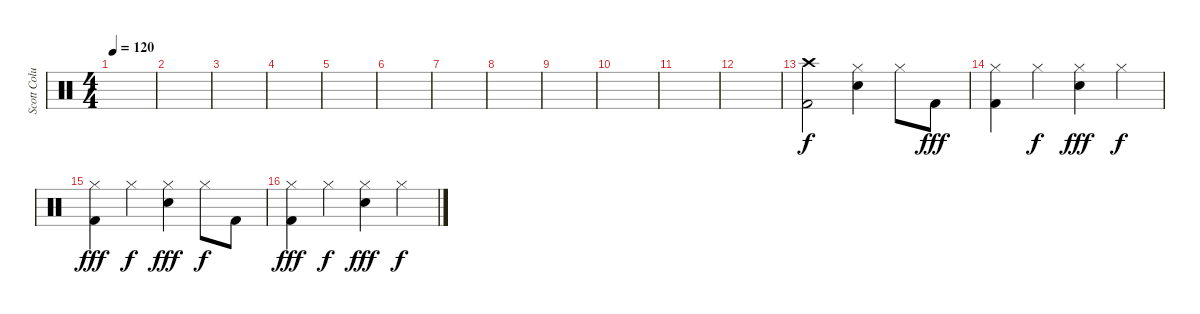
\track ("Scott Columbus" "Scott Colu") {instrument percussion}
\staff {score}
\articulation defaults
\ts (4 4)
\tempo 120
\clef neutral
\ks c
|
|
|
|
|
|
|
|
|
|
|
|
("Kick (hit) 2" "Crash high (hit)").2 ("Electric Snare (hit)" "Hi-Hat (closed)").4 "Hi-Hat (closed)".8{dy f} "Kick (hit) 2".8{dy fff} |
("Kick (hit) 2" "Hi-Hat (closed)").4 "Hi-Hat (closed)".4{dy f} ("Electric Snare (hit)" "Hi-Hat (closed)").4{dy fff} "Hi-Hat (closed)".4{dy f} |
("Kick (hit) 2" "Hi-Hat (closed)").4{dy fff} "Hi-Hat (closed)".4{dy f} ("Electric Snare (hit)" "Hi-Hat (closed)").4{dy fff} "Hi-Hat (closed)".8{dy f} "Kick (hit) 2".8 |
("Kick (hit) 2" "Hi-Hat (closed)").4{dy fff} "Hi-Hat (closed)".4{dy f} ("Electric Snare (hit)" "Hi-Hat (closed)").4{dy fff} "Hi-Hat (closed)".4{dy f}
